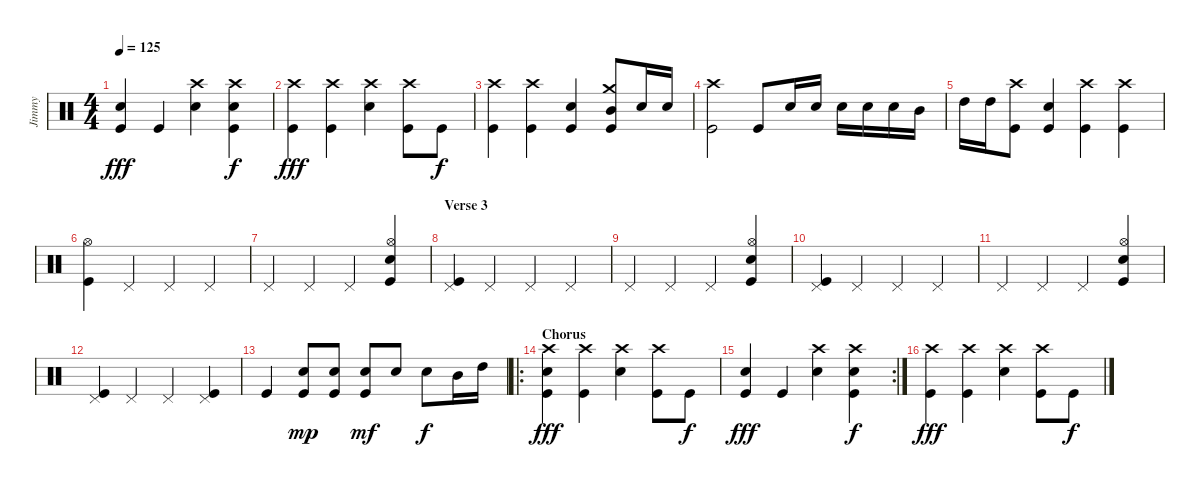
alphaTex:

\track ("Jimmy" "Jimmy") {instrument percussion}
\staff {score}
\articulation defaults
\ts (4 4)
\tempo 125
\clef neutral
\ks c
("Snare (hit) 2" "Kick (hit)").4{dy fff} "Kick (hit)".4 ("Crash high (hit)" "Snare (hit) 2").4 ("Crash high (hit)" "Snare (hit) 2" "Kick (hit)").4{dy f} |
("Crash high (hit)" "Kick (hit)").4{dy fff} ("Crash high (hit)" "Kick (hit)").4 ("Crash high (hit)" "Snare (hit) 2").4 ("Crash high (hit)" "Kick (hit)").8 "Kick (hit)".8{dy f} |
("Crash high (hit)" "Kick (hit)").4 ("Crash high (hit)" "Kick (hit)").4 ("Snare (hit) 2" "Kick (hit)").4 ("Crash medium (hit)" "Mid Tom (hit)" "Kick (hit)").8 "Snare (hit) 2".16 "Snare (hit) 2".16 |
("Crash high (hit)" "Kick (hit)").2 "Kick (hit)".8 "Snare (hit) 2".16 "Snare (hit) 2".16 "Snare (hit) 2".16 "Snare (hit) 2".16 "Snare (hit) 2".16 "Mid Tom (hit)".16 |
"High Tom (hit)".16 "High Tom (hit)".16 ("Crash high (hit)" "Kick (hit)").8 ("Snare (hit) 2" "Kick (hit)").4 ("Crash high (hit)" "Kick (hit)").4 ("Crash high (hit)" "Kick (hit)").4 |
("Hi-Hat (open)" "Kick (hit)").4 "Pedal Hi-Hat (hit)".4 "Pedal Hi-Hat (hit)".4 "Pedal Hi-Hat (hit)".4 |
"Pedal Hi-Hat (hit)".4 "Pedal Hi-Hat (hit)".4 "Pedal Hi-Hat (hit)".4 ("Electric Snare (hit)" "Kick (hit)" "Hi-Hat (open)").4 |
\section ("" "Verse 3")
("Pedal Hi-Hat (hit)" "Kick (hit)").4 "Pedal Hi-Hat (hit)".4 "Pedal Hi-Hat (hit)".4 "Pedal Hi-Hat (hit)".4 |
"Pedal Hi-Hat (hit)".4 "Pedal Hi-Hat (hit)".4 "Pedal Hi-Hat (hit)".4 ("Electric Snare (hit)" "Kick (hit)" "Hi-Hat (open)").4 |
("Pedal Hi-Hat (hit)" "Kick (hit)").4 "Pedal Hi-Hat (hit)".4 "Pedal Hi-Hat (hit)".4 "Pedal Hi-Hat (hit)".4 |
"Pedal Hi-Hat (hit)".4 "Pedal Hi-Hat (hit)".4 "Pedal Hi-Hat (hit)".4 ("Electric Snare (hit)" "Kick (hit)" "Hi-Hat (open)").4 |
("Pedal Hi-Hat (hit)" "Kick (hit)").4 "Pedal Hi-Hat (hit)".4 "Pedal Hi-Hat (hit)".4 ("Pedal Hi-Hat (hit)" "Kick (hit)").4 |
"Kick (hit)".4 ("Snare (hit) 2" "Kick (hit)").8{dy mp} ("Snare (hit) 2" "Kick (hit)").8 ("Snare (hit) 2" "Kick (hit)").8{dy mf} "Snare (hit) 2".8 "Snare (hit) 2".8{dy f} "Mid Tom (hit)".16 "High Tom (hit)".16 |
\ro
\section ("" "Chorus")
("Crash high (hit)" "Snare (hit) 2" "Kick (hit)").4{dy fff} ("Crash high (hit)" "Kick (hit)").4 ("Crash high (hit)" "Snare (hit) 2").4 ("Crash high (hit)" "Kick (hit)").8 "Kick (hit)".8{dy f} |
\rc 2
("Snare (hit) 2" "Kick (hit)").4{dy fff} "Kick (hit)".4 ("Crash high (hit)" "Snare (hit) 2").4 ("Crash high (hit)" "Snare (hit) 2" "Kick (hit)").4{dy f} |
("Crash high (hit)" "Kick (hit)").4{dy fff} ("Crash high (hit)" "Kick (hit)").4 ("Crash high (hit)" "Snare (hit) 2").4 ("Crash high (hit)" "Kick (hit)").8 "Kick (hit)".8{dy f}
